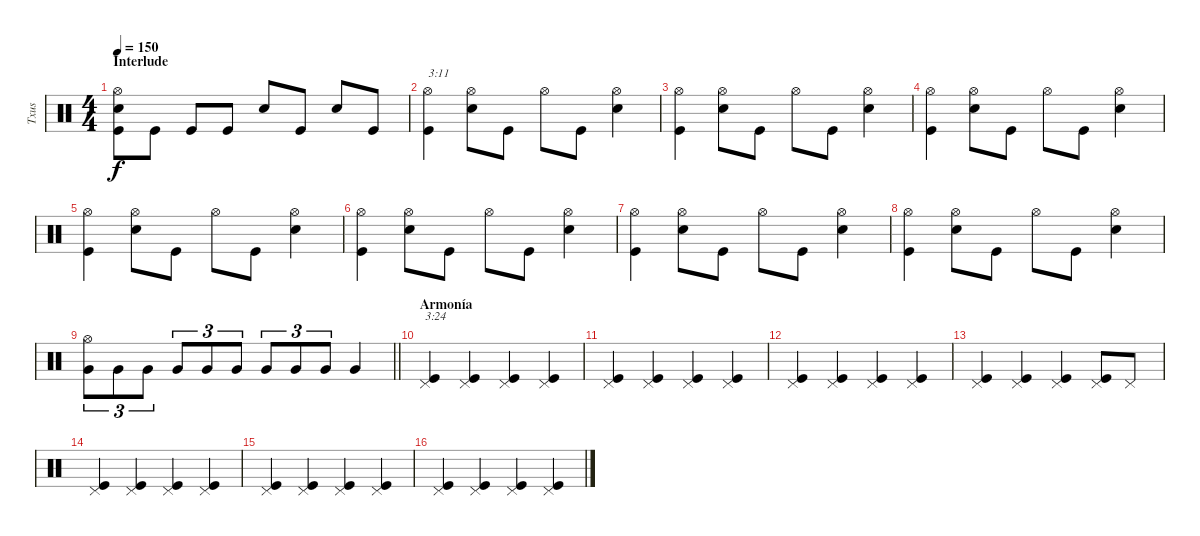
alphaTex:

\track ("Txus" "Txus") {instrument percussion}
\staff {score}
\articulation defaults
\ts (4 4)
\section ("" "Interlude")
\tempo 150
\clef neutral
\ks c
("Kick (hit)" "Snare (hit) 2" "Hi-Hat (open)").8{dy f} "Kick (hit)".8 "Kick (hit)".8 "Kick (hit)".8 "Snare (hit) 2".8 "Kick (hit)".8 "Snare (hit) 2".8 "Kick (hit)".8 |
("Kick (hit)" "Hi-Hat (open)").4{txt "3:11"} ("Snare (hit) 2" "Hi-Hat (open)").8 "Kick (hit)".8 "Hi-Hat (open)".8 "Kick (hit)".8 ("Snare (hit) 2" "Hi-Hat (open)").4 |
("Kick (hit)" "Hi-Hat (open)").4 ("Snare (hit) 2" "Hi-Hat (open)").8 "Kick (hit)".8 "Hi-Hat (open)".8 "Kick (hit)".8 ("Snare (hit) 2" "Hi-Hat (open)").4 |
("Kick (hit)" "Hi-Hat (open)").4 ("Snare (hit) 2" "Hi-Hat (open)").8 "Kick (hit)".8 "Hi-Hat (open)".8 "Kick (hit)".8 ("Snare (hit) 2" "Hi-Hat (open)").4 |
("Kick (hit)" "Hi-Hat (open)").4 ("Snare (hit) 2" "Hi-Hat (open)").8 "Kick (hit)".8 "Hi-Hat (open)".8 "Kick (hit)".8 ("Snare (hit) 2" "Hi-Hat (open)").4 |
("Kick (hit)" "Hi-Hat (open)").4 ("Snare (hit) 2" "Hi-Hat (open)").8 "Kick (hit)".8 "Hi-Hat (open)".8 "Kick (hit)".8 ("Snare (hit) 2" "Hi-Hat (open)").4 |
("Kick (hit)" "Hi-Hat (open)").4 ("Snare (hit) 2" "Hi-Hat (open)").8 "Kick (hit)".8 "Hi-Hat (open)".8 "Kick (hit)".8 ("Snare (hit) 2" "Hi-Hat (open)").4 |
("Kick (hit)" "Hi-Hat (open)").4 ("Snare (hit) 2" "Hi-Hat (open)").8 "Kick (hit)".8 "Hi-Hat (open)".8 "Kick (hit)".8 ("Snare (hit) 2" "Hi-Hat (open)").4 |
\barLineRight lightlight
("Very Low Tom (hit)" "Hi-Hat (open)").8{tu (3 2)} "Very Low Tom (hit)".8{tu (3 2)} "Very Low Tom (hit)".8{tu (3 2)} "Very Low Tom (hit)".8{tu (3 2)} "Very Low Tom (hit)".8{tu (3 2)} "Very Low Tom (hit)".8{tu (3 2)} "Very Low Tom (hit)".8{tu (3 2)} "Very Low Tom (hit)".8{tu (3 2)} "Very Low Tom (hit)".8{tu (3 2)} "Very Low Tom (hit)".4 |
\section ("" "Armonía")
("Kick (hit)" "Pedal Hi-Hat (hit)").4{txt "3:24"} ("Kick (hit)" "Pedal Hi-Hat (hit)").4 ("Kick (hit)" "Pedal Hi-Hat (hit)").4 ("Kick (hit)" "Pedal Hi-Hat (hit)").4 |
("Kick (hit)" "Pedal Hi-Hat (hit)").4 ("Kick (hit)" "Pedal Hi-Hat (hit)").4 ("Kick (hit)" "Pedal Hi-Hat (hit)").4 ("Kick (hit)" "Pedal Hi-Hat (hit)").4 |
("Kick (hit)" "Pedal Hi-Hat (hit)").4 ("Kick (hit)" "Pedal Hi-Hat (hit)").4 ("Kick (hit)" "Pedal Hi-Hat (hit)").4 ("Kick (hit)" "Pedal Hi-Hat (hit)").4 |
("Kick (hit)" "Pedal Hi-Hat (hit)").4 ("Kick (hit)" "Pedal Hi-Hat (hit)").4 ("Kick (hit)" "Pedal Hi-Hat (hit)").4 ("Kick (hit)" "Pedal Hi-Hat (hit)").8 "Pedal Hi-Hat (hit)".8 |
("Kick (hit)" "Pedal Hi-Hat (hit)").4 ("Kick (hit)" "Pedal Hi-Hat (hit)").4 ("Kick (hit)" "Pedal Hi-Hat (hit)").4 ("Kick (hit)" "Pedal Hi-Hat (hit)").4 |
("Kick (hit)" "Pedal Hi-Hat (hit)").4 ("Kick (hit)" "Pedal Hi-Hat (hit)").4 ("Kick (hit)" "Pedal Hi-Hat (hit)").4 ("Kick (hit)" "Pedal Hi-Hat (hit)").4 |
("Kick (hit)" "Pedal Hi-Hat (hit)").4 ("Kick (hit)" "Pedal Hi-Hat (hit)").4 ("Kick (hit)" "Pedal Hi-Hat (hit)").4 ("Kick (hit)" "Pedal Hi-Hat (hit)").4
